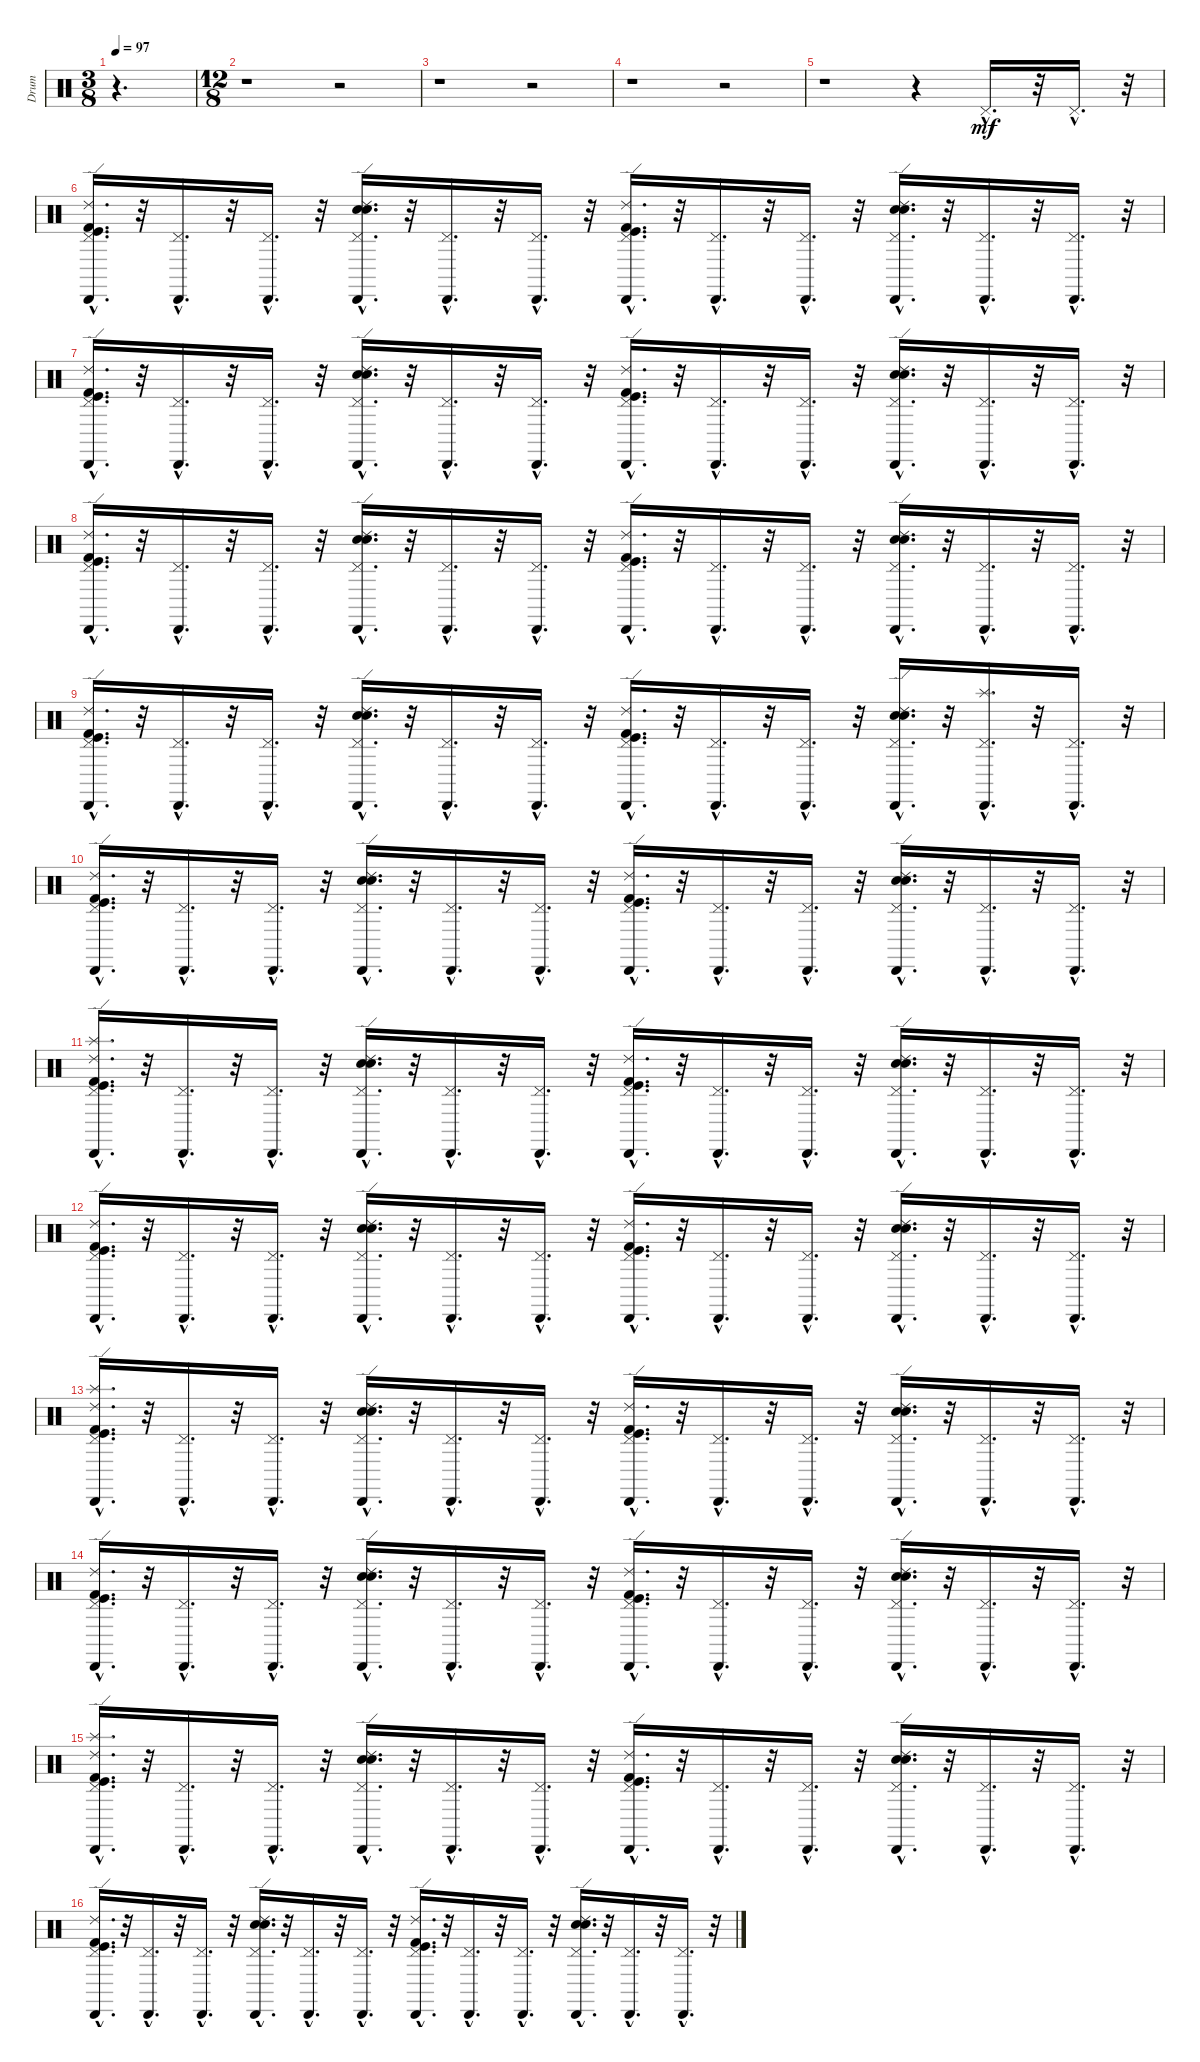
\track ("Drum" "Drum") {instrument percussion}
\staff {score}
\articulation defaults
\ts (3 8)
\tempo 97
\clef neutral
\ks c
r.4{d dy mf} |
\ts (12 8)
r.1 r.2 |
r.1 r.2 |
r.1 r.2 |
r.1 r.4 "Pedal Hi-Hat (hit)"{hac}.16{d} r.32 "Pedal Hi-Hat (hit)"{hac}.16{d} r.32 |
("Kick (hit) 2"{hac} "Ride (edge) 2"{hac} "Cabasa (hit)"{hac} "Kick (hit)"{hac} "Pedal Hi-Hat (hit)"{hac}).16{d} r.32 ("Cabasa (hit)"{hac} "Pedal Hi-Hat (hit)"{hac}).16{d} r.32 ("Cabasa (hit)"{hac} "Pedal Hi-Hat (hit)"{hac}).16{d} r.32 ("Ride (edge) 2"{hac} "Cabasa (hit)"{hac} "Electric Snare (hit)"{hac} "Snare (hit) 2"{hac} "Pedal Hi-Hat (hit)"{hac}).16{d} r.32 ("Cabasa (hit)"{hac} "Pedal Hi-Hat (hit)"{hac}).16{d} r.32 ("Cabasa (hit)"{hac} "Pedal Hi-Hat (hit)"{hac}).16{d} r.32 ("Kick (hit) 2"{hac} "Ride (edge) 2"{hac} "Cabasa (hit)"{hac} "Kick (hit)"{hac} "Pedal Hi-Hat (hit)"{hac}).16{d} r.32 ("Cabasa (hit)"{hac} "Pedal Hi-Hat (hit)"{hac}).16{d} r.32 ("Cabasa (hit)"{hac} "Pedal Hi-Hat (hit)"{hac}).16{d} r.32 ("Ride (edge) 2"{hac} "Cabasa (hit)"{hac} "Electric Snare (hit)"{hac} "Snare (hit) 2"{hac} "Pedal Hi-Hat (hit)"{hac}).16{d} r.32 ("Cabasa (hit)"{hac} "Pedal Hi-Hat (hit)"{hac}).16{d} r.32 ("Cabasa (hit)"{hac} "Pedal Hi-Hat (hit)"{hac}).16{d} r.32 |
("Pedal Hi-Hat (hit)"{hac} "Kick (hit)"{hac} "Cabasa (hit)"{hac} "Ride (edge) 2"{hac} "Kick (hit) 2"{hac}).16{d} r.32 ("Pedal Hi-Hat (hit)"{hac} "Cabasa (hit)"{hac}).16{d} r.32 ("Pedal Hi-Hat (hit)"{hac} "Cabasa (hit)"{hac}).16{d} r.32 ("Pedal Hi-Hat (hit)"{hac} "Snare (hit) 2"{hac} "Electric Snare (hit)"{hac} "Cabasa (hit)"{hac} "Ride (edge) 2"{hac}).16{d} r.32 ("Pedal Hi-Hat (hit)"{hac} "Cabasa (hit)"{hac}).16{d} r.32 ("Pedal Hi-Hat (hit)"{hac} "Cabasa (hit)"{hac}).16{d} r.32 ("Pedal Hi-Hat (hit)"{hac} "Kick (hit)"{hac} "Cabasa (hit)"{hac} "Ride (edge) 2"{hac} "Kick (hit) 2"{hac}).16{d} r.32 ("Pedal Hi-Hat (hit)"{hac} "Cabasa (hit)"{hac}).16{d} r.32 ("Pedal Hi-Hat (hit)"{hac} "Cabasa (hit)"{hac}).16{d} r.32 ("Pedal Hi-Hat (hit)"{hac} "Snare (hit) 2"{hac} "Electric Snare (hit)"{hac} "Cabasa (hit)"{hac} "Ride (edge) 2"{hac}).16{d} r.32 ("Pedal Hi-Hat (hit)"{hac} "Cabasa (hit)"{hac}).16{d} r.32 ("Pedal Hi-Hat (hit)"{hac} "Cabasa (hit)"{hac}).16{d} r.32 |
("Pedal Hi-Hat (hit)"{hac} "Cabasa (hit)"{hac} "Kick (hit)"{hac} "Ride (edge) 2"{hac} "Kick (hit) 2"{hac}).16{d} r.32 ("Cabasa (hit)"{hac} "Pedal Hi-Hat (hit)"{hac}).16{d} r.32 ("Cabasa (hit)"{hac} "Pedal Hi-Hat (hit)"{hac}).16{d} r.32 ("Snare (hit) 2"{hac} "Electric Snare (hit)"{hac} "Pedal Hi-Hat (hit)"{hac} "Cabasa (hit)"{hac} "Ride (edge) 2"{hac}).16{d} r.32 ("Cabasa (hit)"{hac} "Pedal Hi-Hat (hit)"{hac}).16{d} r.32 ("Cabasa (hit)"{hac} "Pedal Hi-Hat (hit)"{hac}).16{d} r.32 ("Kick (hit)"{hac} "Cabasa (hit)"{hac} "Pedal Hi-Hat (hit)"{hac} "Ride (edge) 2"{hac} "Kick (hit) 2"{hac}).16{d} r.32 ("Pedal Hi-Hat (hit)"{hac} "Cabasa (hit)"{hac}).16{d} r.32 ("Cabasa (hit)"{hac} "Pedal Hi-Hat (hit)"{hac}).16{d} r.32 ("Pedal Hi-Hat (hit)"{hac} "Snare (hit) 2"{hac} "Ride (edge) 2"{hac} "Electric Snare (hit)"{hac} "Cabasa (hit)"{hac}).16{d} r.32 ("Cabasa (hit)"{hac} "Pedal Hi-Hat (hit)"{hac}).16{d} r.32 ("Cabasa (hit)"{hac} "Pedal Hi-Hat (hit)"{hac}).16{d} r.32 |
("Pedal Hi-Hat (hit)"{hac} "Kick (hit)"{hac} "Cabasa (hit)"{hac} "Ride (edge) 2"{hac} "Kick (hit) 2"{hac}).16{d} r.32 ("Pedal Hi-Hat (hit)"{hac} "Cabasa (hit)"{hac}).16{d} r.32 ("Pedal Hi-Hat (hit)"{hac} "Cabasa (hit)"{hac}).16{d} r.32 ("Pedal Hi-Hat (hit)"{hac} "Snare (hit) 2"{hac} "Electric Snare (hit)"{hac} "Cabasa (hit)"{hac} "Ride (edge) 2"{hac}).16{d} r.32 ("Pedal Hi-Hat (hit)"{hac} "Cabasa (hit)"{hac}).16{d} r.32 ("Pedal Hi-Hat (hit)"{hac} "Cabasa (hit)"{hac}).16{d} r.32 ("Pedal Hi-Hat (hit)"{hac} "Kick (hit)"{hac} "Cabasa (hit)"{hac} "Ride (edge) 2"{hac} "Kick (hit) 2"{hac}).16{d} r.32 ("Pedal Hi-Hat (hit)"{hac} "Cabasa (hit)"{hac}).16{d} r.32 ("Pedal Hi-Hat (hit)"{hac} "Cabasa (hit)"{hac}).16{d} r.32 ("Pedal Hi-Hat (hit)"{hac} "Snare (hit) 2"{hac} "Electric Snare (hit)"{hac} "Cabasa (hit)"{hac} "Ride (edge) 2"{hac}).16{d} r.32 ("Splash (hit)"{hac} "Pedal Hi-Hat (hit)"{hac} "Cabasa (hit)"{hac}).16{d} r.32 ("Pedal Hi-Hat (hit)"{hac} "Cabasa (hit)"{hac}).16{d} r.32 |
("Kick (hit)"{hac} "Cabasa (hit)"{hac} "Pedal Hi-Hat (hit)"{hac} "Kick (hit) 2"{hac} "Ride (edge) 2"{hac}).16{d} r.32 ("Cabasa (hit)"{hac} "Pedal Hi-Hat (hit)"{hac}).16{d} r.32 ("Cabasa (hit)"{hac} "Pedal Hi-Hat (hit)"{hac}).16{d} r.32 ("Electric Snare (hit)"{hac} "Cabasa (hit)"{hac} "Snare (hit) 2"{hac} "Ride (edge) 2"{hac} "Pedal Hi-Hat (hit)"{hac}).16{d} r.32 ("Pedal Hi-Hat (hit)"{hac} "Cabasa (hit)"{hac}).16{d} r.32 ("Cabasa (hit)"{hac} "Pedal Hi-Hat (hit)"{hac}).16{d} r.32 ("Cabasa (hit)"{hac} "Kick (hit)"{hac} "Kick (hit) 2"{hac} "Ride (edge) 2"{hac} "Pedal Hi-Hat (hit)"{hac}).16{d} r.32 ("Cabasa (hit)"{hac} "Pedal Hi-Hat (hit)"{hac}).16{d} r.32 ("Cabasa (hit)"{hac} "Pedal Hi-Hat (hit)"{hac}).16{d} r.32 ("Snare (hit) 2"{hac} "Electric Snare (hit)"{hac} "Pedal Hi-Hat (hit)"{hac} "Cabasa (hit)"{hac} "Ride (edge) 2"{hac}).16{d} r.32 ("Pedal Hi-Hat (hit)"{hac} "Cabasa (hit)"{hac}).16{d} r.32 ("Cabasa (hit)"{hac} "Pedal Hi-Hat (hit)"{hac}).16{d} r.32 |
("Splash (hit)"{hac} "Ride (edge) 2"{hac} "Kick (hit) 2"{hac} "Pedal Hi-Hat (hit)"{hac} "Kick (hit)"{hac} "Cabasa (hit)"{hac}).16{d} r.32 ("Cabasa (hit)"{hac} "Pedal Hi-Hat (hit)"{hac}).16{d} r.32 ("Cabasa (hit)"{hac} "Pedal Hi-Hat (hit)"{hac}).16{d} r.32 ("Cabasa (hit)"{hac} "Ride (edge) 2"{hac} "Snare (hit) 2"{hac} "Electric Snare (hit)"{hac} "Pedal Hi-Hat (hit)"{hac}).16{d} r.32 ("Pedal Hi-Hat (hit)"{hac} "Cabasa (hit)"{hac}).16{d} r.32 ("Pedal Hi-Hat (hit)"{hac} "Cabasa (hit)"{hac}).16{d} r.32 ("Cabasa (hit)"{hac} "Kick (hit)"{hac} "Kick (hit) 2"{hac} "Ride (edge) 2"{hac} "Pedal Hi-Hat (hit)"{hac}).16{d} r.32 ("Pedal Hi-Hat (hit)"{hac} "Cabasa (hit)"{hac}).16{d} r.32 ("Cabasa (hit)"{hac} "Pedal Hi-Hat (hit)"{hac}).16{d} r.32 ("Electric Snare (hit)"{hac} "Snare (hit) 2"{hac} "Ride (edge) 2"{hac} "Pedal Hi-Hat (hit)"{hac} "Cabasa (hit)"{hac}).16{d} r.32 ("Pedal Hi-Hat (hit)"{hac} "Cabasa (hit)"{hac}).16{d} r.32 ("Cabasa (hit)"{hac} "Pedal Hi-Hat (hit)"{hac}).16{d} r.32 |
("Kick (hit)"{hac} "Pedal Hi-Hat (hit)"{hac} "Kick (hit) 2"{hac} "Cabasa (hit)"{hac} "Ride (edge) 2"{hac}).16{d} r.32 ("Cabasa (hit)"{hac} "Pedal Hi-Hat (hit)"{hac}).16{d} r.32 ("Cabasa (hit)"{hac} "Pedal Hi-Hat (hit)"{hac}).16{d} r.32 ("Pedal Hi-Hat (hit)"{hac} "Cabasa (hit)"{hac} "Electric Snare (hit)"{hac} "Snare (hit) 2"{hac} "Ride (edge) 2"{hac}).16{d} r.32 ("Pedal Hi-Hat (hit)"{hac} "Cabasa (hit)"{hac}).16{d} r.32 ("Pedal Hi-Hat (hit)"{hac} "Cabasa (hit)"{hac}).16{d} r.32 ("Ride (edge) 2"{hac} "Pedal Hi-Hat (hit)"{hac} "Cabasa (hit)"{hac} "Kick (hit)"{hac} "Kick (hit) 2"{hac}).16{d} r.32 ("Pedal Hi-Hat (hit)"{hac} "Cabasa (hit)"{hac}).16{d} r.32 ("Pedal Hi-Hat (hit)"{hac} "Cabasa (hit)"{hac}).16{d} r.32 ("Cabasa (hit)"{hac} "Electric Snare (hit)"{hac} "Snare (hit) 2"{hac} "Ride (edge) 2"{hac} "Pedal Hi-Hat (hit)"{hac}).16{d} r.32 ("Cabasa (hit)"{hac} "Pedal Hi-Hat (hit)"{hac}).16{d} r.32 ("Cabasa (hit)"{hac} "Pedal Hi-Hat (hit)"{hac}).16{d} r.32 |
("Splash (hit)"{hac} "Kick (hit) 2"{hac} "Ride (edge) 2"{hac} "Cabasa (hit)"{hac} "Kick (hit)"{hac} "Pedal Hi-Hat (hit)"{hac}).16{d} r.32 ("Cabasa (hit)"{hac} "Pedal Hi-Hat (hit)"{hac}).16{d} r.32 ("Cabasa (hit)"{hac} "Pedal Hi-Hat (hit)"{hac}).16{d} r.32 ("Ride (edge) 2"{hac} "Cabasa (hit)"{hac} "Electric Snare (hit)"{hac} "Snare (hit) 2"{hac} "Pedal Hi-Hat (hit)"{hac}).16{d} r.32 ("Cabasa (hit)"{hac} "Pedal Hi-Hat (hit)"{hac}).16{d} r.32 ("Cabasa (hit)"{hac} "Pedal Hi-Hat (hit)"{hac}).16{d} r.32 ("Kick (hit) 2"{hac} "Ride (edge) 2"{hac} "Cabasa (hit)"{hac} "Kick (hit)"{hac} "Pedal Hi-Hat (hit)"{hac}).16{d} r.32 ("Cabasa (hit)"{hac} "Pedal Hi-Hat (hit)"{hac}).16{d} r.32 ("Cabasa (hit)"{hac} "Pedal Hi-Hat (hit)"{hac}).16{d} r.32 ("Ride (edge) 2"{hac} "Cabasa (hit)"{hac} "Electric Snare (hit)"{hac} "Snare (hit) 2"{hac} "Pedal Hi-Hat (hit)"{hac}).16{d} r.32 ("Cabasa (hit)"{hac} "Pedal Hi-Hat (hit)"{hac}).16{d} r.32 ("Cabasa (hit)"{hac} "Pedal Hi-Hat (hit)"{hac}).16{d} r.32 |
("Ride (edge) 2"{hac} "Cabasa (hit)"{hac} "Pedal Hi-Hat (hit)"{hac} "Kick (hit) 2"{hac} "Kick (hit)"{hac}).16{d} r.32 ("Pedal Hi-Hat (hit)"{hac} "Cabasa (hit)"{hac}).16{d} r.32 ("Pedal Hi-Hat (hit)"{hac} "Cabasa (hit)"{hac}).16{d} r.32 ("Ride (edge) 2"{hac} "Snare (hit) 2"{hac} "Pedal Hi-Hat (hit)"{hac} "Electric Snare (hit)"{hac} "Cabasa (hit)"{hac}).16{d} r.32 ("Cabasa (hit)"{hac} "Pedal Hi-Hat (hit)"{hac}).16{d} r.32 ("Cabasa (hit)"{hac} "Pedal Hi-Hat (hit)"{hac}).16{d} r.32 ("Cabasa (hit)"{hac} "Pedal Hi-Hat (hit)"{hac} "Kick (hit)"{hac} "Kick (hit) 2"{hac} "Ride (edge) 2"{hac}).16{d} r.32 ("Pedal Hi-Hat (hit)"{hac} "Cabasa (hit)"{hac}).16{d} r.32 ("Pedal Hi-Hat (hit)"{hac} "Cabasa (hit)"{hac}).16{d} r.32 ("Cabasa (hit)"{hac} "Electric Snare (hit)"{hac} "Ride (edge) 2"{hac} "Snare (hit) 2"{hac} "Pedal Hi-Hat (hit)"{hac}).16{d} r.32 ("Pedal Hi-Hat (hit)"{hac} "Cabasa (hit)"{hac}).16{d} r.32 ("Pedal Hi-Hat (hit)"{hac} "Cabasa (hit)"{hac}).16{d} r.32 |
("Splash (hit)"{hac} "Cabasa (hit)"{hac} "Kick (hit)"{hac} "Pedal Hi-Hat (hit)"{hac} "Kick (hit) 2"{hac} "Ride (edge) 2"{hac}).16{d} r.32 ("Pedal Hi-Hat (hit)"{hac} "Cabasa (hit)"{hac}).16{d} r.32 ("Pedal Hi-Hat (hit)"{hac} "Cabasa (hit)"{hac}).16{d} r.32 ("Pedal Hi-Hat (hit)"{hac} "Electric Snare (hit)"{hac} "Snare (hit) 2"{hac} "Ride (edge) 2"{hac} "Cabasa (hit)"{hac}).16{d} r.32 ("Cabasa (hit)"{hac} "Pedal Hi-Hat (hit)"{hac}).16{d} r.32 ("Cabasa (hit)"{hac} "Pedal Hi-Hat (hit)"{hac}).16{d} r.32 ("Pedal Hi-Hat (hit)"{hac} "Ride (edge) 2"{hac} "Kick (hit) 2"{hac} "Kick (hit)"{hac} "Cabasa (hit)"{hac}).16{d} r.32 ("Cabasa (hit)"{hac} "Pedal Hi-Hat (hit)"{hac}).16{d} r.32 ("Pedal Hi-Hat (hit)"{hac} "Cabasa (hit)"{hac}).16{d} r.32 ("Cabasa (hit)"{hac} "Pedal Hi-Hat (hit)"{hac} "Ride (edge) 2"{hac} "Snare (hit) 2"{hac} "Electric Snare (hit)"{hac}).16{d} r.32 ("Cabasa (hit)"{hac} "Pedal Hi-Hat (hit)"{hac}).16{d} r.32 ("Pedal Hi-Hat (hit)"{hac} "Cabasa (hit)"{hac}).16{d} r.32 |
("Kick (hit) 2"{hac} "Pedal Hi-Hat (hit)"{hac} "Ride (edge) 2"{hac} "Cabasa (hit)"{hac} "Kick (hit)"{hac}).16{d} r.32 ("Pedal Hi-Hat (hit)"{hac} "Cabasa (hit)"{hac}).16{d} r.32 ("Pedal Hi-Hat (hit)"{hac} "Cabasa (hit)"{hac}).16{d} r.32 ("Ride (edge) 2"{hac} "Snare (hit) 2"{hac} "Electric Snare (hit)"{hac} "Cabasa (hit)"{hac} "Pedal Hi-Hat (hit)"{hac}).16{d} r.32 ("Pedal Hi-Hat (hit)"{hac} "Cabasa (hit)"{hac}).16{d} r.32 ("Pedal Hi-Hat (hit)"{hac} "Cabasa (hit)"{hac}).16{d} r.32 ("Kick (hit) 2"{hac} "Pedal Hi-Hat (hit)"{hac} "Kick (hit)"{hac} "Cabasa (hit)"{hac} "Ride (edge) 2"{hac}).16{d} r.32 ("Cabasa (hit)"{hac} "Pedal Hi-Hat (hit)"{hac}).16{d} r.32 ("Cabasa (hit)"{hac} "Pedal Hi-Hat (hit)"{hac}).16{d} r.32 ("Snare (hit) 2"{hac} "Pedal Hi-Hat (hit)"{hac} "Electric Snare (hit)"{hac} "Ride (edge) 2"{hac} "Cabasa (hit)"{hac}).16{d} r.32 ("Cabasa (hit)"{hac} "Pedal Hi-Hat (hit)"{hac}).16{d} r.32 ("Cabasa (hit)"{hac} "Pedal Hi-Hat (hit)"{hac}).16{d} r.32
